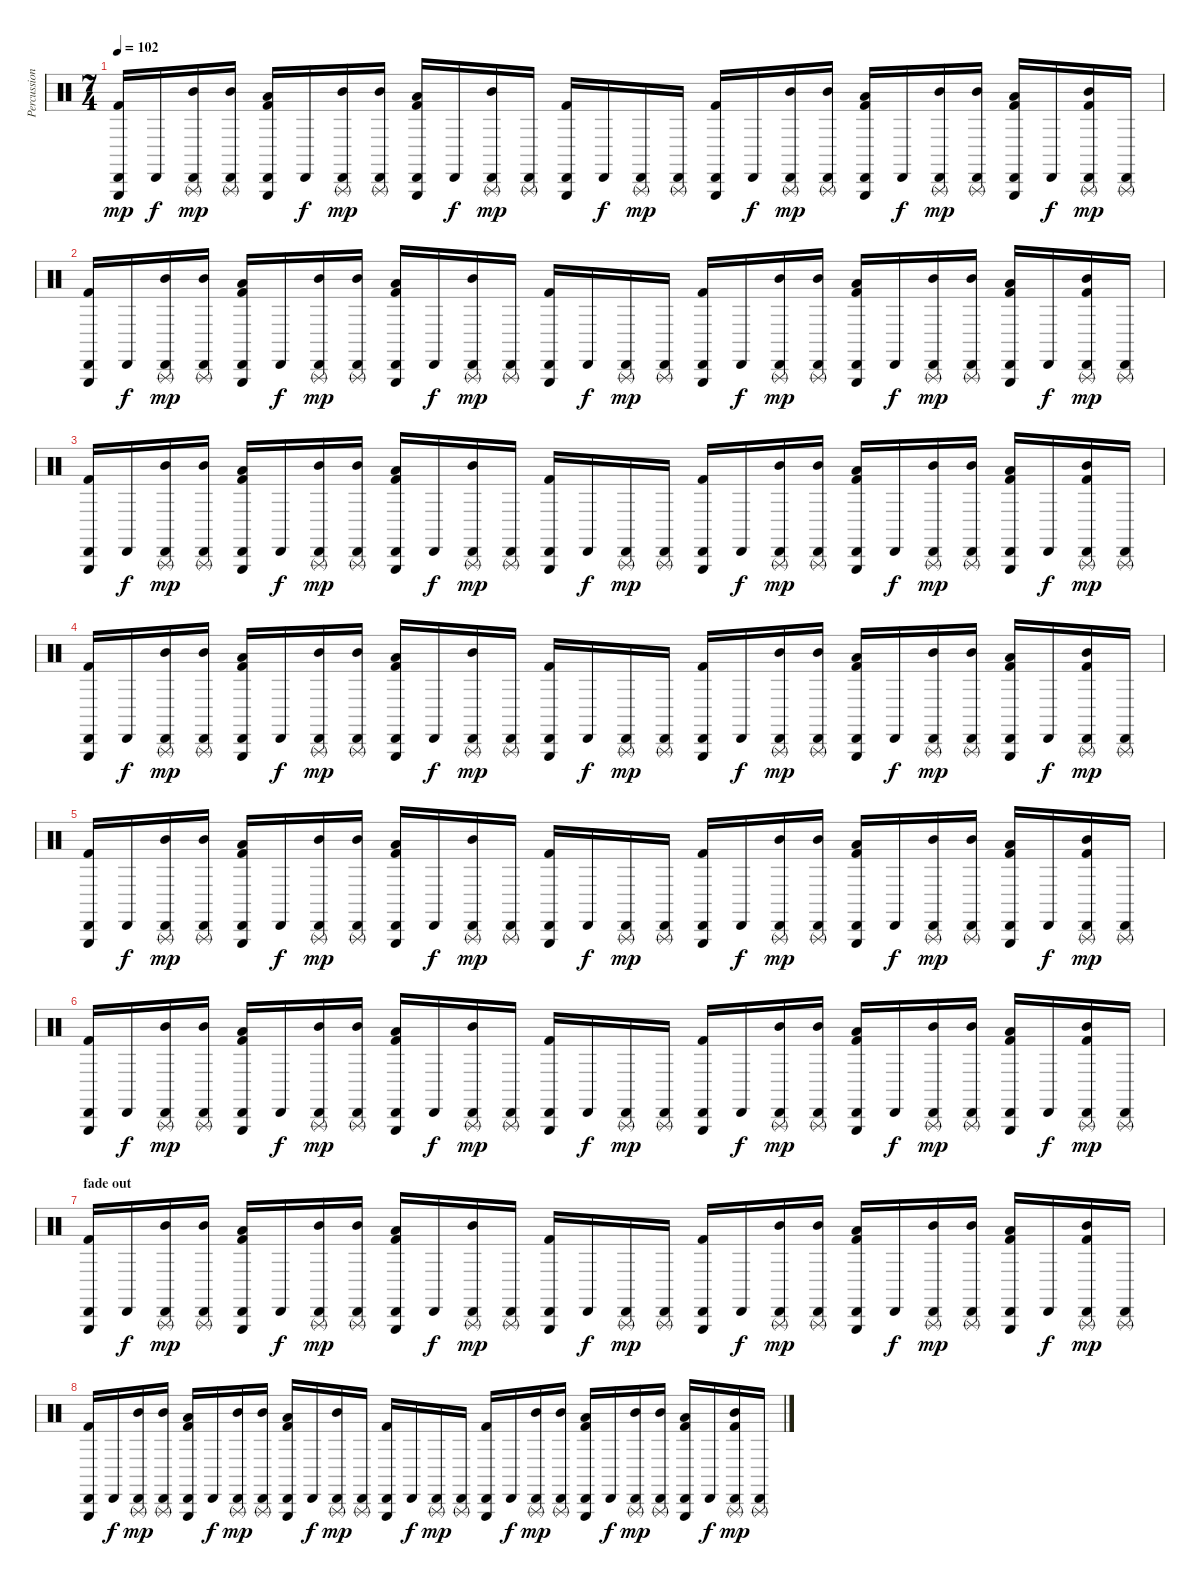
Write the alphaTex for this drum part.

\track ("Percussion" "Percussion") {instrument percussion}
\staff {score}
\articulation defaults
\ts (7 4)
\tempo 102
\clef neutral
\ks c
("Triangle (hit)" "Cabasa (hit)" "Kick (hit) 2").16{dy mp} "Cabasa (hit)".16{dy f} ("Triangle (rnute)" "Cabasa (hit)" "Mid Tom (hit)").16{dy mp} ("Triangle (rnute)" "Cabasa (hit)" "Mid Tom (hit)").16 ("Triangle (hit)" "Cabasa (hit)" "Low Tom (hit)" "Kick (hit) 2").16 "Cabasa (hit)".16{dy f} ("Triangle (rnute)" "Cabasa (hit)" "Mid Tom (hit)").16{dy mp} ("Triangle (rnute)" "Cabasa (hit)" "Mid Tom (hit)").16 ("Triangle (hit)" "Cabasa (hit)" "Low Tom (hit)" "Kick (hit) 2").16 "Cabasa (hit)".16{dy f} ("Triangle (rnute)" "Cabasa (hit)" "Mid Tom (hit)").16{dy mp} ("Triangle (rnute)" "Cabasa (hit)").16 ("Triangle (hit)" "Cabasa (hit)" "Kick (hit) 2").16 "Cabasa (hit)".16{dy f} ("Triangle (rnute)" "Cabasa (hit)").16{dy mp} ("Triangle (rnute)" "Cabasa (hit)").16 ("Triangle (hit)" "Cabasa (hit)" "Kick (hit) 2").16 "Cabasa (hit)".16{dy f} ("Triangle (rnute)" "Cabasa (hit)" "Mid Tom (hit)").16{dy mp} ("Triangle (rnute)" "Cabasa (hit)" "Mid Tom (hit)").16 ("Triangle (hit)" "Cabasa (hit)" "Low Tom (hit)" "Kick (hit) 2").16 "Cabasa (hit)".16{dy f} ("Triangle (rnute)" "Cabasa (hit)" "Mid Tom (hit)").16{dy mp} ("Triangle (rnute)" "Cabasa (hit)" "Mid Tom (hit)").16 ("Triangle (hit)" "Cabasa (hit)" "Low Tom (hit)" "Kick (hit) 2").16 "Cabasa (hit)".16{dy f} ("Triangle (rnute)" "Cabasa (hit)" "Mid Tom (hit)" "Kick (hit) 2").16{dy mp} ("Triangle (rnute)" "Cabasa (hit)").16 |
("Triangle (hit)" "Cabasa (hit)" "Kick (hit) 2").16 "Cabasa (hit)".16{dy f} ("Triangle (rnute)" "Cabasa (hit)" "Mid Tom (hit)").16{dy mp} ("Triangle (rnute)" "Cabasa (hit)" "Mid Tom (hit)").16 ("Triangle (hit)" "Cabasa (hit)" "Low Tom (hit)" "Kick (hit) 2").16 "Cabasa (hit)".16{dy f} ("Triangle (rnute)" "Cabasa (hit)" "Mid Tom (hit)").16{dy mp} ("Triangle (rnute)" "Cabasa (hit)" "Mid Tom (hit)").16 ("Triangle (hit)" "Cabasa (hit)" "Low Tom (hit)" "Kick (hit) 2").16 "Cabasa (hit)".16{dy f} ("Triangle (rnute)" "Cabasa (hit)" "Mid Tom (hit)").16{dy mp} ("Triangle (rnute)" "Cabasa (hit)").16 ("Triangle (hit)" "Cabasa (hit)" "Kick (hit) 2").16 "Cabasa (hit)".16{dy f} ("Triangle (rnute)" "Cabasa (hit)").16{dy mp} ("Triangle (rnute)" "Cabasa (hit)").16 ("Triangle (hit)" "Cabasa (hit)" "Kick (hit) 2").16 "Cabasa (hit)".16{dy f} ("Triangle (rnute)" "Cabasa (hit)" "Mid Tom (hit)").16{dy mp} ("Triangle (rnute)" "Cabasa (hit)" "Mid Tom (hit)").16 ("Triangle (hit)" "Cabasa (hit)" "Low Tom (hit)" "Kick (hit) 2").16 "Cabasa (hit)".16{dy f} ("Triangle (rnute)" "Cabasa (hit)" "Mid Tom (hit)").16{dy mp} ("Triangle (rnute)" "Cabasa (hit)" "Mid Tom (hit)").16 ("Triangle (hit)" "Cabasa (hit)" "Low Tom (hit)" "Kick (hit) 2").16 "Cabasa (hit)".16{dy f} ("Triangle (rnute)" "Cabasa (hit)" "Mid Tom (hit)" "Kick (hit) 2").16{dy mp} ("Triangle (rnute)" "Cabasa (hit)").16 |
("Triangle (hit)" "Cabasa (hit)" "Kick (hit) 2").16 "Cabasa (hit)".16{dy f} ("Triangle (rnute)" "Cabasa (hit)" "Mid Tom (hit)").16{dy mp} ("Triangle (rnute)" "Cabasa (hit)" "Mid Tom (hit)").16 ("Triangle (hit)" "Cabasa (hit)" "Low Tom (hit)" "Kick (hit) 2").16 "Cabasa (hit)".16{dy f} ("Triangle (rnute)" "Cabasa (hit)" "Mid Tom (hit)").16{dy mp} ("Triangle (rnute)" "Cabasa (hit)" "Mid Tom (hit)").16 ("Triangle (hit)" "Cabasa (hit)" "Low Tom (hit)" "Kick (hit) 2").16 "Cabasa (hit)".16{dy f} ("Triangle (rnute)" "Cabasa (hit)" "Mid Tom (hit)").16{dy mp} ("Triangle (rnute)" "Cabasa (hit)").16 ("Triangle (hit)" "Cabasa (hit)" "Kick (hit) 2").16 "Cabasa (hit)".16{dy f} ("Triangle (rnute)" "Cabasa (hit)").16{dy mp} ("Triangle (rnute)" "Cabasa (hit)").16 ("Triangle (hit)" "Cabasa (hit)" "Kick (hit) 2").16 "Cabasa (hit)".16{dy f} ("Triangle (rnute)" "Cabasa (hit)" "Mid Tom (hit)").16{dy mp} ("Triangle (rnute)" "Cabasa (hit)" "Mid Tom (hit)").16 ("Triangle (hit)" "Cabasa (hit)" "Low Tom (hit)" "Kick (hit) 2").16 "Cabasa (hit)".16{dy f} ("Triangle (rnute)" "Cabasa (hit)" "Mid Tom (hit)").16{dy mp} ("Triangle (rnute)" "Cabasa (hit)" "Mid Tom (hit)").16 ("Triangle (hit)" "Cabasa (hit)" "Low Tom (hit)" "Kick (hit) 2").16 "Cabasa (hit)".16{dy f} ("Triangle (rnute)" "Cabasa (hit)" "Mid Tom (hit)" "Kick (hit) 2").16{dy mp} ("Triangle (rnute)" "Cabasa (hit)").16 |
("Triangle (hit)" "Cabasa (hit)" "Kick (hit) 2").16 "Cabasa (hit)".16{dy f} ("Triangle (rnute)" "Cabasa (hit)" "Mid Tom (hit)").16{dy mp} ("Triangle (rnute)" "Cabasa (hit)" "Mid Tom (hit)").16 ("Triangle (hit)" "Cabasa (hit)" "Low Tom (hit)" "Kick (hit) 2").16 "Cabasa (hit)".16{dy f} ("Triangle (rnute)" "Cabasa (hit)" "Mid Tom (hit)").16{dy mp} ("Triangle (rnute)" "Cabasa (hit)" "Mid Tom (hit)").16 ("Triangle (hit)" "Cabasa (hit)" "Low Tom (hit)" "Kick (hit) 2").16 "Cabasa (hit)".16{dy f} ("Triangle (rnute)" "Cabasa (hit)" "Mid Tom (hit)").16{dy mp} ("Triangle (rnute)" "Cabasa (hit)").16 ("Triangle (hit)" "Cabasa (hit)" "Kick (hit) 2").16 "Cabasa (hit)".16{dy f} ("Triangle (rnute)" "Cabasa (hit)").16{dy mp} ("Triangle (rnute)" "Cabasa (hit)").16 ("Triangle (hit)" "Cabasa (hit)" "Kick (hit) 2").16 "Cabasa (hit)".16{dy f} ("Triangle (rnute)" "Cabasa (hit)" "Mid Tom (hit)").16{dy mp} ("Triangle (rnute)" "Cabasa (hit)" "Mid Tom (hit)").16 ("Triangle (hit)" "Cabasa (hit)" "Low Tom (hit)" "Kick (hit) 2").16 "Cabasa (hit)".16{dy f} ("Triangle (rnute)" "Cabasa (hit)" "Mid Tom (hit)").16{dy mp} ("Triangle (rnute)" "Cabasa (hit)" "Mid Tom (hit)").16 ("Triangle (hit)" "Cabasa (hit)" "Low Tom (hit)" "Kick (hit) 2").16 "Cabasa (hit)".16{dy f} ("Triangle (rnute)" "Cabasa (hit)" "Mid Tom (hit)" "Kick (hit) 2").16{dy mp} ("Triangle (rnute)" "Cabasa (hit)").16 |
("Triangle (hit)" "Cabasa (hit)" "Kick (hit) 2").16 "Cabasa (hit)".16{dy f} ("Triangle (rnute)" "Cabasa (hit)" "Mid Tom (hit)").16{dy mp} ("Triangle (rnute)" "Cabasa (hit)" "Mid Tom (hit)").16 ("Triangle (hit)" "Cabasa (hit)" "Low Tom (hit)" "Kick (hit) 2").16 "Cabasa (hit)".16{dy f} ("Triangle (rnute)" "Cabasa (hit)" "Mid Tom (hit)").16{dy mp} ("Triangle (rnute)" "Cabasa (hit)" "Mid Tom (hit)").16 ("Triangle (hit)" "Cabasa (hit)" "Low Tom (hit)" "Kick (hit) 2").16 "Cabasa (hit)".16{dy f} ("Triangle (rnute)" "Cabasa (hit)" "Mid Tom (hit)").16{dy mp} ("Triangle (rnute)" "Cabasa (hit)").16 ("Triangle (hit)" "Cabasa (hit)" "Kick (hit) 2").16 "Cabasa (hit)".16{dy f} ("Triangle (rnute)" "Cabasa (hit)").16{dy mp} ("Triangle (rnute)" "Cabasa (hit)").16 ("Triangle (hit)" "Cabasa (hit)" "Kick (hit) 2").16 "Cabasa (hit)".16{dy f} ("Triangle (rnute)" "Cabasa (hit)" "Mid Tom (hit)").16{dy mp} ("Triangle (rnute)" "Cabasa (hit)" "Mid Tom (hit)").16 ("Triangle (hit)" "Cabasa (hit)" "Low Tom (hit)" "Kick (hit) 2").16 "Cabasa (hit)".16{dy f} ("Triangle (rnute)" "Cabasa (hit)" "Mid Tom (hit)").16{dy mp} ("Triangle (rnute)" "Cabasa (hit)" "Mid Tom (hit)").16 ("Triangle (hit)" "Cabasa (hit)" "Low Tom (hit)" "Kick (hit) 2").16 "Cabasa (hit)".16{dy f} ("Triangle (rnute)" "Cabasa (hit)" "Mid Tom (hit)" "Kick (hit) 2").16{dy mp} ("Triangle (rnute)" "Cabasa (hit)").16 |
("Triangle (hit)" "Cabasa (hit)" "Kick (hit) 2").16 "Cabasa (hit)".16{dy f} ("Triangle (rnute)" "Cabasa (hit)" "Mid Tom (hit)").16{dy mp} ("Triangle (rnute)" "Cabasa (hit)" "Mid Tom (hit)").16 ("Triangle (hit)" "Cabasa (hit)" "Low Tom (hit)" "Kick (hit) 2").16 "Cabasa (hit)".16{dy f} ("Triangle (rnute)" "Cabasa (hit)" "Mid Tom (hit)").16{dy mp} ("Triangle (rnute)" "Cabasa (hit)" "Mid Tom (hit)").16 ("Triangle (hit)" "Cabasa (hit)" "Low Tom (hit)" "Kick (hit) 2").16 "Cabasa (hit)".16{dy f} ("Triangle (rnute)" "Cabasa (hit)" "Mid Tom (hit)").16{dy mp} ("Triangle (rnute)" "Cabasa (hit)").16 ("Triangle (hit)" "Cabasa (hit)" "Kick (hit) 2").16 "Cabasa (hit)".16{dy f} ("Triangle (rnute)" "Cabasa (hit)").16{dy mp} ("Triangle (rnute)" "Cabasa (hit)").16 ("Triangle (hit)" "Cabasa (hit)" "Kick (hit) 2").16 "Cabasa (hit)".16{dy f} ("Triangle (rnute)" "Cabasa (hit)" "Mid Tom (hit)").16{dy mp} ("Triangle (rnute)" "Cabasa (hit)" "Mid Tom (hit)").16 ("Triangle (hit)" "Cabasa (hit)" "Low Tom (hit)" "Kick (hit) 2").16 "Cabasa (hit)".16{dy f} ("Triangle (rnute)" "Cabasa (hit)" "Mid Tom (hit)").16{dy mp} ("Triangle (rnute)" "Cabasa (hit)" "Mid Tom (hit)").16 ("Triangle (hit)" "Cabasa (hit)" "Low Tom (hit)" "Kick (hit) 2").16 "Cabasa (hit)".16{dy f} ("Triangle (rnute)" "Cabasa (hit)" "Mid Tom (hit)" "Kick (hit) 2").16{dy mp} ("Triangle (rnute)" "Cabasa (hit)").16 |
\section ("" "fade out")
("Triangle (hit)" "Cabasa (hit)" "Kick (hit) 2").16{volume 9} "Cabasa (hit)".16{dy f} ("Triangle (rnute)" "Cabasa (hit)" "Mid Tom (hit)").16{dy mp} ("Triangle (rnute)" "Cabasa (hit)" "Mid Tom (hit)").16 ("Triangle (hit)" "Cabasa (hit)" "Low Tom (hit)" "Kick (hit) 2").16 "Cabasa (hit)".16{dy f} ("Triangle (rnute)" "Cabasa (hit)" "Mid Tom (hit)").16{dy mp} ("Triangle (rnute)" "Cabasa (hit)" "Mid Tom (hit)").16 ("Triangle (hit)" "Cabasa (hit)" "Low Tom (hit)" "Kick (hit) 2").16 "Cabasa (hit)".16{dy f} ("Triangle (rnute)" "Cabasa (hit)" "Mid Tom (hit)").16{dy mp} ("Triangle (rnute)" "Cabasa (hit)").16 ("Triangle (hit)" "Cabasa (hit)" "Kick (hit) 2").16 "Cabasa (hit)".16{dy f} ("Triangle (rnute)" "Cabasa (hit)").16{dy mp} ("Triangle (rnute)" "Cabasa (hit)").16 ("Triangle (hit)" "Cabasa (hit)" "Kick (hit) 2").16 "Cabasa (hit)".16{dy f} ("Triangle (rnute)" "Cabasa (hit)" "Mid Tom (hit)").16{dy mp} ("Triangle (rnute)" "Cabasa (hit)" "Mid Tom (hit)").16 ("Triangle (hit)" "Cabasa (hit)" "Low Tom (hit)" "Kick (hit) 2").16 "Cabasa (hit)".16{dy f} ("Triangle (rnute)" "Cabasa (hit)" "Mid Tom (hit)").16{dy mp} ("Triangle (rnute)" "Cabasa (hit)" "Mid Tom (hit)").16 ("Triangle (hit)" "Cabasa (hit)" "Low Tom (hit)" "Kick (hit) 2").16 "Cabasa (hit)".16{dy f} ("Triangle (rnute)" "Cabasa (hit)" "Mid Tom (hit)" "Kick (hit) 2").16{dy mp} ("Triangle (rnute)" "Cabasa (hit)").16 |
("Triangle (hit)" "Cabasa (hit)" "Kick (hit) 2").16{volume 6} "Cabasa (hit)".16{dy f} ("Triangle (rnute)" "Cabasa (hit)" "Mid Tom (hit)").16{dy mp} ("Triangle (rnute)" "Cabasa (hit)" "Mid Tom (hit)").16 ("Triangle (hit)" "Cabasa (hit)" "Low Tom (hit)" "Kick (hit) 2").16 "Cabasa (hit)".16{dy f} ("Triangle (rnute)" "Cabasa (hit)" "Mid Tom (hit)").16{dy mp} ("Triangle (rnute)" "Cabasa (hit)" "Mid Tom (hit)").16 ("Triangle (hit)" "Cabasa (hit)" "Low Tom (hit)" "Kick (hit) 2").16 "Cabasa (hit)".16{dy f} ("Triangle (rnute)" "Cabasa (hit)" "Mid Tom (hit)").16{dy mp} ("Triangle (rnute)" "Cabasa (hit)").16 ("Triangle (hit)" "Cabasa (hit)" "Kick (hit) 2").16 "Cabasa (hit)".16{dy f} ("Triangle (rnute)" "Cabasa (hit)").16{dy mp} ("Triangle (rnute)" "Cabasa (hit)").16 ("Triangle (hit)" "Cabasa (hit)" "Kick (hit) 2").16 "Cabasa (hit)".16{dy f} ("Triangle (rnute)" "Cabasa (hit)" "Mid Tom (hit)").16{dy mp} ("Triangle (rnute)" "Cabasa (hit)" "Mid Tom (hit)").16 ("Triangle (hit)" "Cabasa (hit)" "Low Tom (hit)" "Kick (hit) 2").16 "Cabasa (hit)".16{dy f} ("Triangle (rnute)" "Cabasa (hit)" "Mid Tom (hit)").16{dy mp} ("Triangle (rnute)" "Cabasa (hit)" "Mid Tom (hit)").16 ("Triangle (hit)" "Cabasa (hit)" "Low Tom (hit)" "Kick (hit) 2").16 "Cabasa (hit)".16{dy f} ("Triangle (rnute)" "Cabasa (hit)" "Mid Tom (hit)" "Kick (hit) 2").16{dy mp} ("Triangle (rnute)" "Cabasa (hit)").16
